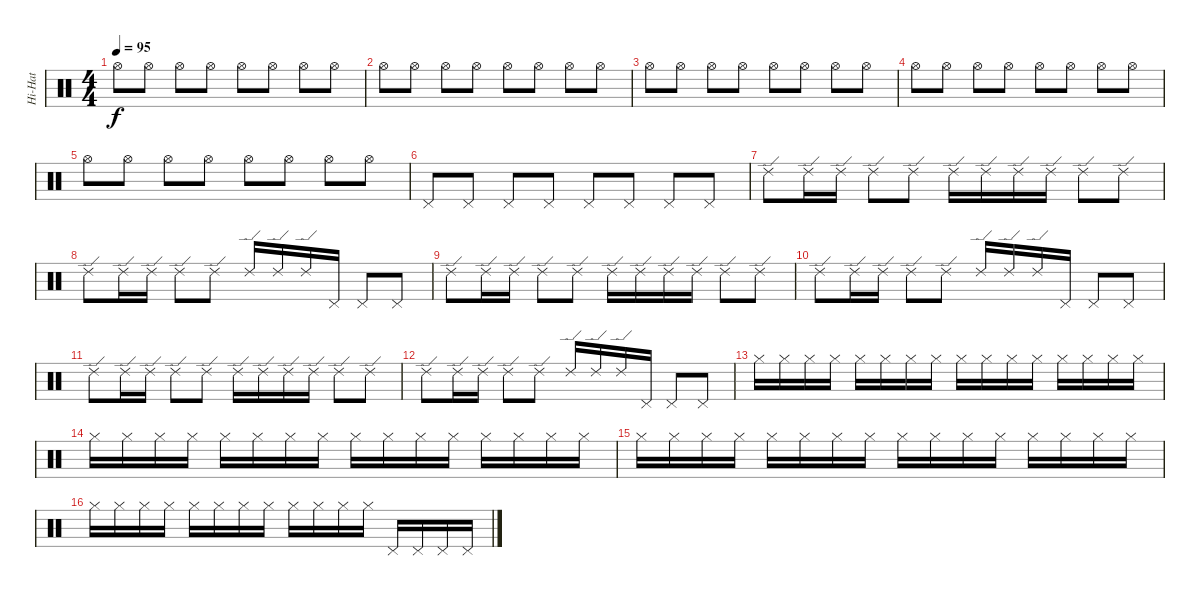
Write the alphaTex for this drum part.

\track ("Hi-Hat" "Hi-Hat") {instrument percussion}
\staff {score}
\articulation defaults
\ts (4 4)
\tempo 95
\clef neutral
\ks c "Hi-Hat (open)".8{dy f} "Hi-Hat (open)".8 "Hi-Hat (open)".8 "Hi-Hat (open)".8 "Hi-Hat (open)".8 "Hi-Hat (open)".8 "Hi-Hat (open)".8 "Hi-Hat (open)".8
|
"Hi-Hat (open)".8 "Hi-Hat (open)".8 "Hi-Hat (open)".8 "Hi-Hat (open)".8 "Hi-Hat (open)".8 "Hi-Hat (open)".8 "Hi-Hat (open)".8 "Hi-Hat (open)".8 |
"Hi-Hat (open)".8 "Hi-Hat (open)".8 "Hi-Hat (open)".8 "Hi-Hat (open)".8 "Hi-Hat (open)".8 "Hi-Hat (open)".8 "Hi-Hat (open)".8 "Hi-Hat (open)".8 |
"Hi-Hat (open)".8 "Hi-Hat (open)".8 "Hi-Hat (open)".8 "Hi-Hat (open)".8 "Hi-Hat (open)".8 "Hi-Hat (open)".8 "Hi-Hat (open)".8 "Hi-Hat (open)".8 |
"Hi-Hat (open)".8 "Hi-Hat (open)".8 "Hi-Hat (open)".8 "Hi-Hat (open)".8 "Hi-Hat (open)".8 "Hi-Hat (open)".8 "Hi-Hat (open)".8 "Hi-Hat (open)".8 |
"Pedal Hi-Hat (hit)".8 "Pedal Hi-Hat (hit)".8 "Pedal Hi-Hat (hit)".8 "Pedal Hi-Hat (hit)".8 "Pedal Hi-Hat (hit)".8 "Pedal Hi-Hat (hit)".8 "Pedal Hi-Hat (hit)".8 "Pedal Hi-Hat (hit)".8 |
"Ride (edge) 2".8 "Ride (edge) 2".16 "Ride (edge) 2".16 "Ride (edge) 2".8 "Ride (edge) 2".8 "Ride (edge) 2".16 "Ride (edge) 2".16 "Ride (edge) 2".16 "Ride (edge) 2".16 "Ride (edge) 2".8 "Ride (edge) 2".8 |
"Ride (edge) 2".8 "Ride (edge) 2".16 "Ride (edge) 2".16 "Ride (edge) 2".8 "Ride (edge) 2".8 "Ride (edge) 2".16 "Ride (edge) 2".16 "Ride (edge) 2".16 "Pedal Hi-Hat (hit)".16 "Pedal Hi-Hat (hit)".8 "Pedal Hi-Hat (hit)".8 |
"Ride (edge) 2".8 "Ride (edge) 2".16 "Ride (edge) 2".16 "Ride (edge) 2".8 "Ride (edge) 2".8 "Ride (edge) 2".16 "Ride (edge) 2".16 "Ride (edge) 2".16 "Ride (edge) 2".16 "Ride (edge) 2".8 "Ride (edge) 2".8 |
"Ride (edge) 2".8 "Ride (edge) 2".16 "Ride (edge) 2".16 "Ride (edge) 2".8 "Ride (edge) 2".8 "Ride (edge) 2".16 "Ride (edge) 2".16 "Ride (edge) 2".16 "Pedal Hi-Hat (hit)".16 "Pedal Hi-Hat (hit)".8 "Pedal Hi-Hat (hit)".8 |
"Ride (edge) 2".8 "Ride (edge) 2".16 "Ride (edge) 2".16 "Ride (edge) 2".8 "Ride (edge) 2".8 "Ride (edge) 2".16 "Ride (edge) 2".16 "Ride (edge) 2".16 "Ride (edge) 2".16 "Ride (edge) 2".8 "Ride (edge) 2".8 |
"Ride (edge) 2".8 "Ride (edge) 2".16 "Ride (edge) 2".16 "Ride (edge) 2".8 "Ride (edge) 2".8 "Ride (edge) 2".16 "Ride (edge) 2".16 "Ride (edge) 2".16 "Pedal Hi-Hat (hit)".16 "Pedal Hi-Hat (hit)".8 "Pedal Hi-Hat (hit)".8 |
"Hi-Hat (closed)".16 "Hi-Hat (closed)".16 "Hi-Hat (closed)".16 "Hi-Hat (closed)".16 "Hi-Hat (closed)".16 "Hi-Hat (closed)".16 "Hi-Hat (closed)".16 "Hi-Hat (closed)".16 "Hi-Hat (closed)".16 "Hi-Hat (closed)".16 "Hi-Hat (closed)".16 "Hi-Hat (closed)".16 "Hi-Hat (closed)".16 "Hi-Hat (closed)".16 "Hi-Hat (closed)".16 "Hi-Hat (closed)".16 |
"Hi-Hat (closed)".16 "Hi-Hat (closed)".16 "Hi-Hat (closed)".16 "Hi-Hat (closed)".16 "Hi-Hat (closed)".16 "Hi-Hat (closed)".16 "Hi-Hat (closed)".16 "Hi-Hat (closed)".16 "Hi-Hat (closed)".16 "Hi-Hat (closed)".16 "Hi-Hat (closed)".16 "Hi-Hat (closed)".16 "Hi-Hat (closed)".16 "Hi-Hat (closed)".16 "Hi-Hat (closed)".16 "Hi-Hat (closed)".16 |
"Hi-Hat (closed)".16 "Hi-Hat (closed)".16 "Hi-Hat (closed)".16 "Hi-Hat (closed)".16 "Hi-Hat (closed)".16 "Hi-Hat (closed)".16 "Hi-Hat (closed)".16 "Hi-Hat (closed)".16 "Hi-Hat (closed)".16 "Hi-Hat (closed)".16 "Hi-Hat (closed)".16 "Hi-Hat (closed)".16 "Hi-Hat (closed)".16 "Hi-Hat (closed)".16 "Hi-Hat (closed)".16 "Hi-Hat (closed)".16 |
"Hi-Hat (closed)".16 "Hi-Hat (closed)".16 "Hi-Hat (closed)".16 "Hi-Hat (closed)".16 "Hi-Hat (closed)".16 "Hi-Hat (closed)".16 "Hi-Hat (closed)".16 "Hi-Hat (closed)".16 "Hi-Hat (closed)".16 "Hi-Hat (closed)".16 "Hi-Hat (closed)".16 "Hi-Hat (closed)".16 "Pedal Hi-Hat (hit)".16 "Pedal Hi-Hat (hit)"{x}.16 "Pedal Hi-Hat (hit)".16 "Pedal Hi-Hat (hit)"{x}.16
